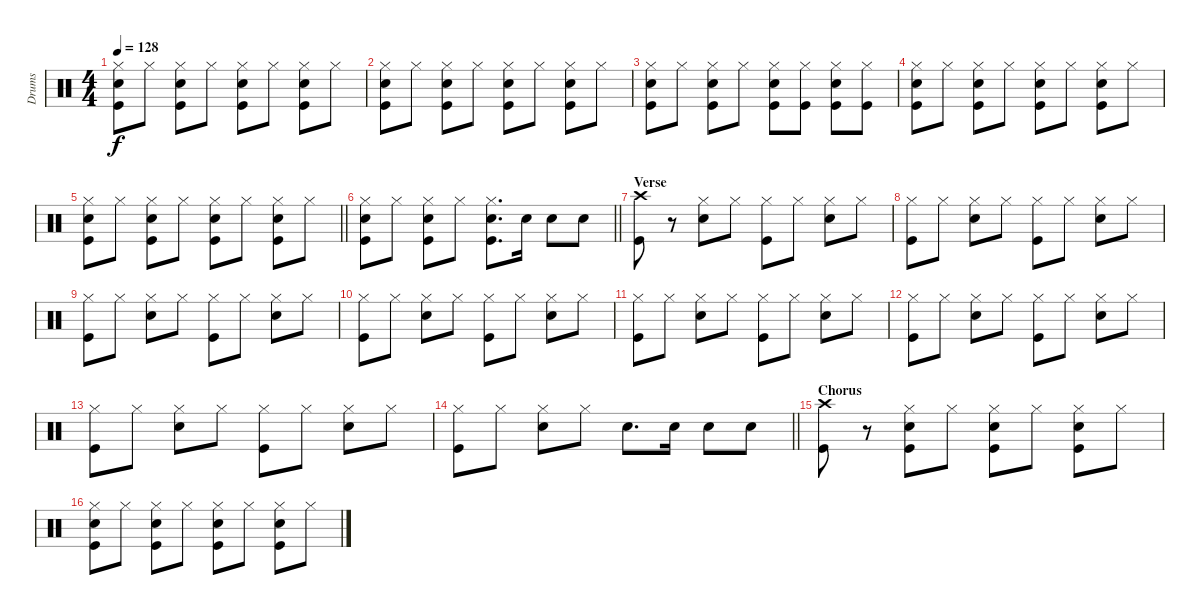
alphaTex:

\track ("Drums" "Drums") {instrument percussion}
\staff {score}
\articulation defaults
\ts (4 4)
\tempo 128
\clef neutral
\ks c
("Hi-Hat (closed)" "Snare (hit) 2" "Kick (hit)").8{dy f} "Hi-Hat (closed)".8 ("Hi-Hat (closed)" "Snare (hit) 2" "Kick (hit)").8 "Hi-Hat (closed)".8 ("Hi-Hat (closed)" "Snare (hit) 2" "Kick (hit)").8 "Hi-Hat (closed)".8 ("Hi-Hat (closed)" "Snare (hit) 2" "Kick (hit)").8 "Hi-Hat (closed)".8 |
("Hi-Hat (closed)" "Snare (hit) 2" "Kick (hit)").8 "Hi-Hat (closed)".8 ("Hi-Hat (closed)" "Snare (hit) 2" "Kick (hit)").8 "Hi-Hat (closed)".8 ("Hi-Hat (closed)" "Snare (hit) 2" "Kick (hit)").8 "Hi-Hat (closed)".8 ("Hi-Hat (closed)" "Snare (hit) 2" "Kick (hit)").8 "Hi-Hat (closed)".8 |
("Hi-Hat (closed)" "Snare (hit) 2" "Kick (hit)").8 "Hi-Hat (closed)".8 ("Hi-Hat (closed)" "Snare (hit) 2" "Kick (hit)").8 "Hi-Hat (closed)".8 ("Hi-Hat (closed)" "Snare (hit) 2" "Kick (hit)").8 ("Hi-Hat (closed)" "Kick (hit)").8 ("Hi-Hat (closed)" "Snare (hit) 2" "Kick (hit)").8 ("Hi-Hat (closed)" "Kick (hit)").8 |
("Hi-Hat (closed)" "Snare (hit) 2" "Kick (hit)").8 "Hi-Hat (closed)".8 ("Hi-Hat (closed)" "Snare (hit) 2" "Kick (hit)").8 "Hi-Hat (closed)".8 ("Hi-Hat (closed)" "Snare (hit) 2" "Kick (hit)").8 "Hi-Hat (closed)".8 ("Hi-Hat (closed)" "Snare (hit) 2" "Kick (hit)").8 "Hi-Hat (closed)".8 |
\barLineRight lightlight
("Hi-Hat (closed)" "Snare (hit) 2" "Kick (hit)").8 "Hi-Hat (closed)".8 ("Hi-Hat (closed)" "Snare (hit) 2" "Kick (hit)").8 "Hi-Hat (closed)".8 ("Hi-Hat (closed)" "Snare (hit) 2" "Kick (hit)").8 "Hi-Hat (closed)".8 ("Hi-Hat (closed)" "Snare (hit) 2" "Kick (hit)").8 "Hi-Hat (closed)".8 |
\barLineRight lightlight
("Hi-Hat (closed)" "Snare (hit) 2" "Kick (hit)").8 "Hi-Hat (closed)".8 ("Hi-Hat (closed)" "Snare (hit) 2" "Kick (hit)").8 "Hi-Hat (closed)".8 ("Hi-Hat (closed)" "Kick (hit)" "Snare (hit) 2").8{d} "Snare (hit) 2".16 "Snare (hit) 2".8 "Snare (hit) 2".8 |
\section ("" "Verse")
("Crash high (hit)" "Kick (hit)").8 r.8 ("Hi-Hat (closed)" "Snare (hit) 2").8 "Hi-Hat (closed)".8 ("Hi-Hat (closed)" "Kick (hit)").8 "Hi-Hat (closed)".8 ("Hi-Hat (closed)" "Snare (hit) 2").8 "Hi-Hat (closed)".8 |
("Hi-Hat (closed)" "Kick (hit)").8 "Hi-Hat (closed)".8 ("Hi-Hat (closed)" "Snare (hit) 2").8 "Hi-Hat (closed)".8 ("Hi-Hat (closed)" "Kick (hit)").8 "Hi-Hat (closed)".8 ("Hi-Hat (closed)" "Snare (hit) 2").8 "Hi-Hat (closed)".8 |
("Hi-Hat (closed)" "Kick (hit)").8 "Hi-Hat (closed)".8 ("Hi-Hat (closed)" "Snare (hit) 2").8 "Hi-Hat (closed)".8 ("Hi-Hat (closed)" "Kick (hit)").8 "Hi-Hat (closed)".8 ("Hi-Hat (closed)" "Snare (hit) 2").8 "Hi-Hat (closed)".8 |
("Hi-Hat (closed)" "Kick (hit)").8 "Hi-Hat (closed)".8 ("Hi-Hat (closed)" "Snare (hit) 2").8 "Hi-Hat (closed)".8 ("Hi-Hat (closed)" "Kick (hit)").8 "Hi-Hat (closed)".8 ("Hi-Hat (closed)" "Snare (hit) 2").8 "Hi-Hat (closed)".8 |
("Hi-Hat (closed)" "Kick (hit)").8 "Hi-Hat (closed)".8 ("Hi-Hat (closed)" "Snare (hit) 2").8 "Hi-Hat (closed)".8 ("Hi-Hat (closed)" "Kick (hit)").8 "Hi-Hat (closed)".8 ("Hi-Hat (closed)" "Snare (hit) 2").8 "Hi-Hat (closed)".8 |
("Hi-Hat (closed)" "Kick (hit)").8 "Hi-Hat (closed)".8 ("Hi-Hat (closed)" "Snare (hit) 2").8 "Hi-Hat (closed)".8 ("Hi-Hat (closed)" "Kick (hit)").8 "Hi-Hat (closed)".8 ("Hi-Hat (closed)" "Snare (hit) 2").8 "Hi-Hat (closed)".8 |
("Hi-Hat (closed)" "Kick (hit)").8 "Hi-Hat (closed)".8 ("Hi-Hat (closed)" "Snare (hit) 2").8 "Hi-Hat (closed)".8 ("Hi-Hat (closed)" "Kick (hit)").8 "Hi-Hat (closed)".8 ("Hi-Hat (closed)" "Snare (hit) 2").8 "Hi-Hat (closed)".8 |
\barLineRight lightlight
("Hi-Hat (closed)" "Kick (hit)").8 "Hi-Hat (closed)".8 ("Hi-Hat (closed)" "Snare (hit) 2").8 "Hi-Hat (closed)".8 "Snare (hit) 2".8{d} "Snare (hit) 2".16 "Snare (hit) 2".8 "Snare (hit) 2".8 |
\section ("" "Chorus")
("Crash high (hit)" "Kick (hit)").8 r.8 ("Hi-Hat (closed)" "Snare (hit) 2" "Kick (hit)").8 "Hi-Hat (closed)".8 ("Hi-Hat (closed)" "Snare (hit) 2" "Kick (hit)").8 "Hi-Hat (closed)".8 ("Hi-Hat (closed)" "Snare (hit) 2" "Kick (hit)").8 "Hi-Hat (closed)".8 |
("Hi-Hat (closed)" "Snare (hit) 2" "Kick (hit)").8 "Hi-Hat (closed)".8 ("Hi-Hat (closed)" "Snare (hit) 2" "Kick (hit)").8 "Hi-Hat (closed)".8 ("Hi-Hat (closed)" "Snare (hit) 2" "Kick (hit)").8 "Hi-Hat (closed)".8 ("Hi-Hat (closed)" "Snare (hit) 2" "Kick (hit)").8 "Hi-Hat (closed)".8
